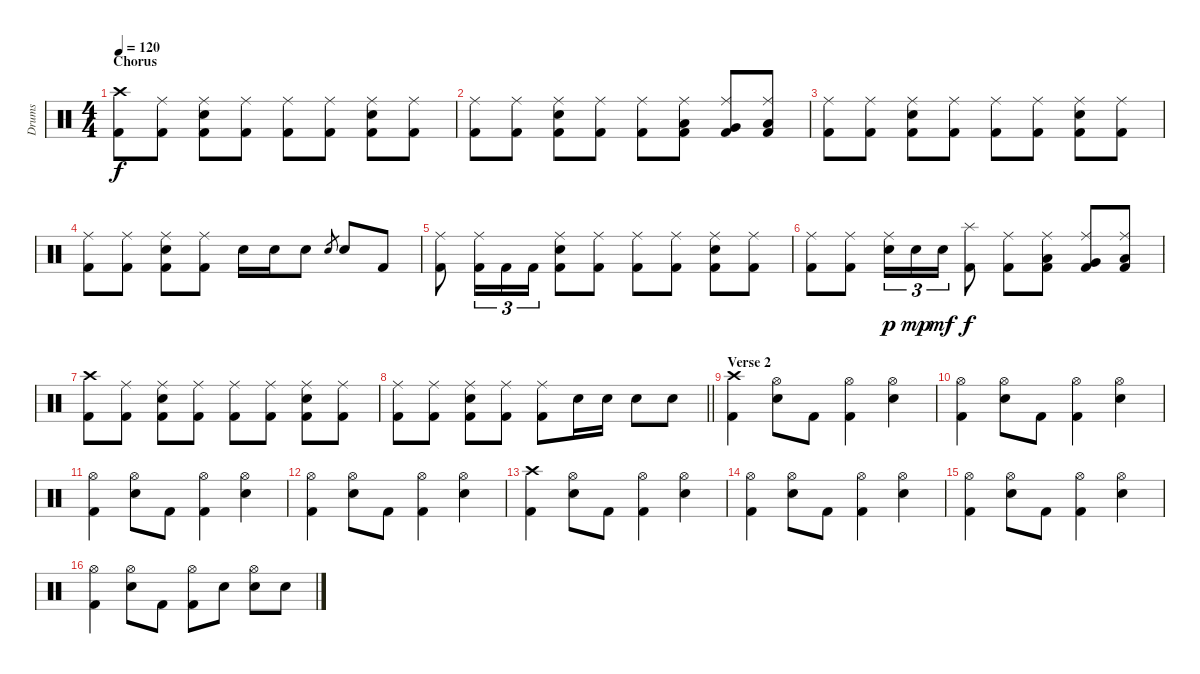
\track ("Drums" "Drums") {instrument percussion}
\staff {score}
\articulation defaults
\ts (4 4)
\section ("" "Chorus")
\tempo 120
\clef neutral
\ks c
("Crash high (hit)" "Kick (hit) 2").8{dy f} ("Ride (middle)" "Kick (hit) 2").8 ("Ride (middle)" "Snare (hit) 2" "Kick (hit) 2").8 ("Ride (middle)" "Kick (hit) 2").8 ("Ride (middle)" "Kick (hit) 2").8 ("Ride (middle)" "Kick (hit) 2").8 ("Ride (middle)" "Snare (hit) 2" "Kick (hit) 2").8 ("Ride (middle)" "Kick (hit) 2").8 |
("Ride (middle)" "Kick (hit) 2").8 ("Ride (middle)" "Kick (hit) 2").8 ("Ride (middle)" "Snare (hit) 2" "Kick (hit) 2").8 ("Ride (middle)" "Kick (hit) 2").8 ("Ride (middle)" "Kick (hit) 2").8 ("Ride (middle)" "Low Tom (hit)" "Kick (hit) 2").8 ("Ride (middle)" "Very Low Tom (hit)" "Kick (hit) 2").8 ("Ride (middle)" "Low Floor Tom (hit)" "Kick (hit) 2").8 |
("Ride (middle)" "Kick (hit) 2").8 ("Ride (middle)" "Kick (hit) 2").8 ("Ride (middle)" "Snare (hit) 2" "Kick (hit) 2").8 ("Ride (middle)" "Kick (hit) 2").8 ("Ride (middle)" "Kick (hit) 2").8 ("Ride (middle)" "Kick (hit) 2").8 ("Ride (middle)" "Snare (hit) 2" "Kick (hit) 2").8 ("Ride (middle)" "Kick (hit) 2").8 |
("Ride (middle)" "Kick (hit) 2").8 ("Ride (middle)" "Kick (hit) 2").8 ("Ride (middle)" "Snare (hit) 2" "Kick (hit) 2").8 ("Ride (middle)" "Kick (hit) 2").8 "Snare (hit) 2".16 "Snare (hit) 2".16 "Snare (hit) 2".8 "Snare (hit) 2".8{gr} "Snare (hit) 2".8 "Kick (hit) 2".8 |
("Ride (middle)" "Kick (hit) 2").8 ("Ride (middle)" "Kick (hit) 2").16{tu (3 2)} "Kick (hit) 2".16{tu (3 2)} "Kick (hit) 2".16{tu (3 2)} ("Ride (middle)" "Snare (hit) 2" "Kick (hit) 2").8 ("Ride (middle)" "Kick (hit) 2").8 ("Ride (middle)" "Kick (hit) 2").8 ("Ride (middle)" "Kick (hit) 2").8 ("Ride (middle)" "Snare (hit) 2" "Kick (hit) 2").8 ("Ride (middle)" "Kick (hit) 2").8 |
("Ride (middle)" "Kick (hit) 2").8 ("Ride (middle)" "Kick (hit) 2").8 ("Ride (middle)" "Snare (hit) 2").16{tu (3 2) dy p} "Snare (hit) 2".16{tu (3 2) dy mp} "Snare (hit) 2".16{tu (3 2) dy mf} ("Splash (hit)" "Kick (hit) 2").8{dy f} ("Ride (middle)" "Kick (hit) 2").8 ("Ride (middle)" "Low Tom (hit)" "Kick (hit) 2").8 ("Ride (middle)" "Very Low Tom (hit)" "Kick (hit) 2").8 ("Ride (middle)" "Low Floor Tom (hit)" "Kick (hit) 2").8 |
("Crash high (hit)" "Kick (hit) 2").8 ("Ride (middle)" "Kick (hit) 2").8 ("Ride (middle)" "Snare (hit) 2" "Kick (hit) 2").8 ("Ride (middle)" "Kick (hit) 2").8 ("Ride (middle)" "Kick (hit) 2").8 ("Ride (middle)" "Kick (hit) 2").8 ("Ride (middle)" "Snare (hit) 2" "Kick (hit) 2").8 ("Ride (middle)" "Kick (hit) 2").8 |
\barLineRight lightlight
("Ride (middle)" "Kick (hit) 2").8 ("Ride (middle)" "Kick (hit) 2").8 ("Ride (middle)" "Snare (hit) 2" "Kick (hit) 2").8 ("Ride (middle)" "Kick (hit) 2").8 ("Ride (middle)" "Kick (hit) 2").8 "Snare (hit) 2".16 "Snare (hit) 2".16 "Snare (hit) 2".8 "Snare (hit) 2".8 |
\section ("" "Verse 2")
("Crash high (hit)" "Kick (hit) 2").4 ("Hi-Hat (open)" "Snare (hit) 2").8 "Kick (hit) 2".8 ("Hi-Hat (open)" "Kick (hit) 2").4 ("Hi-Hat (open)" "Snare (hit) 2").4 |
("Hi-Hat (open)" "Kick (hit) 2").4 ("Hi-Hat (open)" "Snare (hit) 2").8 "Kick (hit) 2".8 ("Hi-Hat (open)" "Kick (hit) 2").4 ("Hi-Hat (open)" "Snare (hit) 2").4 |
("Hi-Hat (open)" "Kick (hit) 2").4 ("Hi-Hat (open)" "Snare (hit) 2").8 "Kick (hit) 2".8 ("Hi-Hat (open)" "Kick (hit) 2").4 ("Hi-Hat (open)" "Snare (hit) 2").4 |
("Hi-Hat (open)" "Kick (hit) 2").4 ("Hi-Hat (open)" "Snare (hit) 2").8 "Kick (hit) 2".8 ("Hi-Hat (open)" "Kick (hit) 2").4 ("Hi-Hat (open)" "Snare (hit) 2").4 |
("Crash high (hit)" "Kick (hit) 2").4 ("Hi-Hat (open)" "Snare (hit) 2").8 "Kick (hit) 2".8 ("Hi-Hat (open)" "Kick (hit) 2").4 ("Hi-Hat (open)" "Snare (hit) 2").4 |
("Hi-Hat (open)" "Kick (hit) 2").4 ("Hi-Hat (open)" "Snare (hit) 2").8 "Kick (hit) 2".8 ("Hi-Hat (open)" "Kick (hit) 2").4 ("Hi-Hat (open)" "Snare (hit) 2").4 |
("Hi-Hat (open)" "Kick (hit) 2").4 ("Hi-Hat (open)" "Snare (hit) 2").8 "Kick (hit) 2".8 ("Hi-Hat (open)" "Kick (hit) 2").4 ("Hi-Hat (open)" "Snare (hit) 2").4 |
("Hi-Hat (open)" "Kick (hit) 2").4 ("Hi-Hat (open)" "Snare (hit) 2").8 "Kick (hit) 2".8 ("Hi-Hat (open)" "Kick (hit) 2").8 "Snare (hit) 2".8 ("Hi-Hat (open)" "Snare (hit) 2").8 "Snare (hit) 2".8
